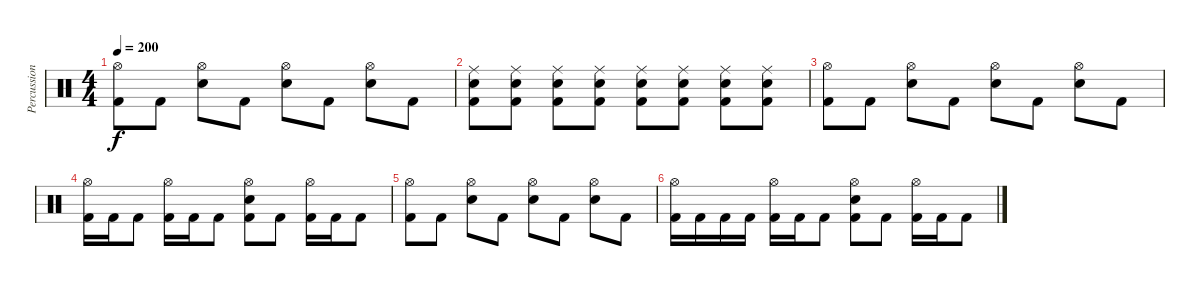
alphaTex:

\track ("Percussion" "Percussion") {instrument percussion}
\staff {score}
\articulation defaults
\ts (4 4)
\tempo 200
\clef neutral
\ks c
("Hi-Hat (open)" "Kick (hit) 2").8{dy f} "Kick (hit) 2".8 ("Hi-Hat (open)" "Electric Snare (hit)").8 "Kick (hit) 2".8 ("Hi-Hat (open)" "Electric Snare (hit)").8 "Kick (hit) 2".8 ("Hi-Hat (open)" "Electric Snare (hit)").8 "Kick (hit) 2".8 |
("Ride (middle)" "Electric Snare (hit)" "Kick (hit) 2").8 ("Ride (middle)" "Electric Snare (hit)" "Kick (hit) 2").8 ("Ride (middle)" "Electric Snare (hit)" "Kick (hit) 2").8 ("Ride (middle)" "Electric Snare (hit)" "Kick (hit) 2").8 ("Ride (middle)" "Electric Snare (hit)" "Kick (hit) 2").8 ("Ride (middle)" "Electric Snare (hit)" "Kick (hit) 2").8 ("Ride (middle)" "Electric Snare (hit)" "Kick (hit) 2").8 ("Ride (middle)" "Electric Snare (hit)" "Kick (hit) 2").8 |
("Hi-Hat (open)" "Kick (hit) 2").8 "Kick (hit) 2".8 ("Hi-Hat (open)" "Electric Snare (hit)").8 "Kick (hit) 2".8 ("Hi-Hat (open)" "Electric Snare (hit)").8 "Kick (hit) 2".8 ("Hi-Hat (open)" "Electric Snare (hit)").8 "Kick (hit) 2".8 |
("Hi-Hat (open)" "Kick (hit) 2").16 "Kick (hit) 2".16 "Kick (hit) 2".8 ("Hi-Hat (open)" "Kick (hit) 2").16 "Kick (hit) 2".16 "Kick (hit) 2".8 ("Hi-Hat (open)" "Electric Snare (hit)" "Kick (hit) 2").8 "Kick (hit) 2".8 ("Hi-Hat (open)" "Kick (hit) 2").16 "Kick (hit) 2".16 "Kick (hit) 2".8 |
("Hi-Hat (open)" "Kick (hit) 2").8 "Kick (hit) 2".8 ("Hi-Hat (open)" "Electric Snare (hit)").8 "Kick (hit) 2".8 ("Hi-Hat (open)" "Electric Snare (hit)").8 "Kick (hit) 2".8 ("Hi-Hat (open)" "Electric Snare (hit)").8 "Kick (hit) 2".8 |
("Hi-Hat (open)" "Kick (hit) 2").16 "Kick (hit) 2".16 "Kick (hit) 2".16 "Kick (hit) 2".16 ("Hi-Hat (open)" "Kick (hit) 2").16 "Kick (hit) 2".16 "Kick (hit) 2".8 ("Hi-Hat (open)" "Electric Snare (hit)" "Kick (hit) 2").8 "Kick (hit) 2".8 ("Hi-Hat (open)" "Kick (hit) 2").16 "Kick (hit) 2".16 "Kick (hit) 2".8
